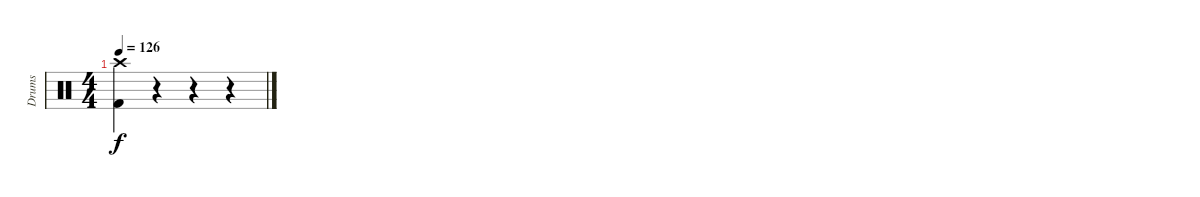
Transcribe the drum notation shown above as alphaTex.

\track ("Drums" "Drums") {instrument percussion}
\staff {score}
\articulation defaults
\ts (4 4)
\tempo 126
\clef neutral
\ks c
("Crash high (hit)" "Kick (hit) 2").4{dy f} r.4 r.4 r.4
